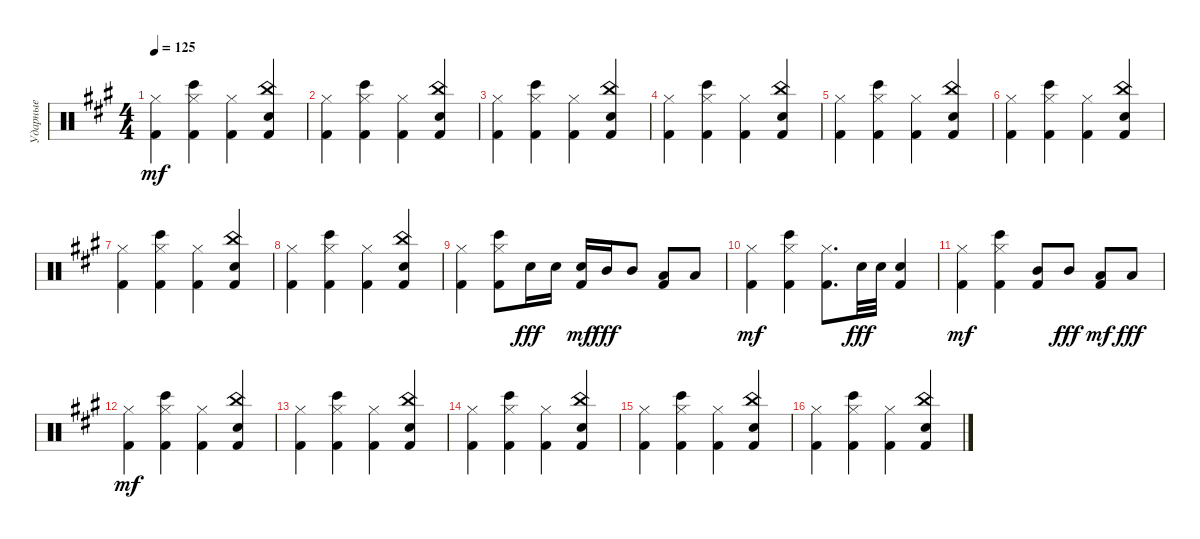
\track ("Ударные" "Ударные") {instrument percussion}
\staff {score}
\articulation defaults
\ts (4 4)
\tempo 125
\clef neutral
\ks f#minor
("Hi-Hat (closed)" "Kick (hit) 2").4{dy mf} ("Hi-Hat (closed)" "Bongo High (hit)" "Kick (hit) 2").4 ("Hi-Hat (closed)" "Kick (hit) 2").4 ("China (hit)" "Electric Snare (hit)" "Kick (hit) 2").4 |
("Hi-Hat (closed)" "Kick (hit) 2").4 ("Hi-Hat (closed)" "Bongo High (hit)" "Kick (hit) 2").4 ("Hi-Hat (closed)" "Kick (hit) 2").4 ("China (hit)" "Electric Snare (hit)" "Kick (hit) 2").4 |
("Hi-Hat (closed)" "Kick (hit) 2").4 ("Hi-Hat (closed)" "Bongo High (hit)" "Kick (hit) 2").4 ("Hi-Hat (closed)" "Kick (hit) 2").4 ("China (hit)" "Electric Snare (hit)" "Kick (hit) 2").4 |
("Hi-Hat (closed)" "Kick (hit) 2").4 ("Hi-Hat (closed)" "Bongo High (hit)" "Kick (hit) 2").4 ("Hi-Hat (closed)" "Kick (hit) 2").4 ("China (hit)" "Electric Snare (hit)" "Kick (hit) 2").4 |
("Hi-Hat (closed)" "Kick (hit) 2").4 ("Hi-Hat (closed)" "Bongo High (hit)" "Kick (hit) 2").4 ("Hi-Hat (closed)" "Kick (hit) 2").4 ("China (hit)" "Electric Snare (hit)" "Kick (hit) 2").4 |
("Hi-Hat (closed)" "Kick (hit) 2").4 ("Hi-Hat (closed)" "Bongo High (hit)" "Kick (hit) 2").4 ("Hi-Hat (closed)" "Kick (hit) 2").4 ("China (hit)" "Electric Snare (hit)" "Kick (hit) 2").4 |
("Hi-Hat (closed)" "Kick (hit) 2").4 ("Hi-Hat (closed)" "Bongo High (hit)" "Kick (hit) 2").4 ("Hi-Hat (closed)" "Kick (hit) 2").4 ("China (hit)" "Electric Snare (hit)" "Kick (hit) 2").4 |
("Hi-Hat (closed)" "Kick (hit) 2").4 ("Hi-Hat (closed)" "Bongo High (hit)" "Kick (hit) 2").4 ("Hi-Hat (closed)" "Kick (hit) 2").4 ("China (hit)" "Electric Snare (hit)" "Kick (hit) 2").4 |
("Hi-Hat (closed)" "Kick (hit) 2").4 ("Hi-Hat (closed)" "Bongo High (hit)" "Kick (hit) 2").8 "Electric Snare (hit)".16{dy fff} "Electric Snare (hit)".16 ("Electric Snare (hit)" "Kick (hit) 2").16{dy mf} "Mid Tom (hit)".16{dy fff} "Mid Tom (hit)".8 ("Low Tom (hit)" "Kick (hit) 2").8 "Low Tom (hit)".8 |
("Hi-Hat (closed)" "Kick (hit) 2").4{dy mf} ("Hi-Hat (closed)" "Bongo High (hit)" "Kick (hit) 2").4 ("Hi-Hat (closed)" "Kick (hit) 2").8{d} "Snare (hit) 2".32{dy fff} "Snare (hit) 2".32 ("Snare (hit) 2" "Kick (hit) 2").4 |
("Hi-Hat (closed)" "Kick (hit) 2").4{dy mf} ("Hi-Hat (closed)" "Bongo High (hit)" "Kick (hit) 2").4 ("Mid Tom (hit)" "Kick (hit) 2").8 "Mid Tom (hit)".8{dy fff} ("Low Tom (hit)" "Kick (hit) 2").8{dy mf} "Low Tom (hit)".8{dy fff} |
("Hi-Hat (closed)" "Kick (hit) 2").4{dy mf} ("Hi-Hat (closed)" "Bongo High (hit)" "Kick (hit) 2").4 ("Hi-Hat (closed)" "Kick (hit) 2").4 ("China (hit)" "Electric Snare (hit)" "Kick (hit) 2").4 |
("Hi-Hat (closed)" "Kick (hit) 2").4 ("Hi-Hat (closed)" "Bongo High (hit)" "Kick (hit) 2").4 ("Hi-Hat (closed)" "Kick (hit) 2").4 ("China (hit)" "Electric Snare (hit)" "Kick (hit) 2").4 |
("Hi-Hat (closed)" "Kick (hit) 2").4 ("Hi-Hat (closed)" "Bongo High (hit)" "Kick (hit) 2").4 ("Hi-Hat (closed)" "Kick (hit) 2").4 ("China (hit)" "Electric Snare (hit)" "Kick (hit) 2").4 |
("Hi-Hat (closed)" "Kick (hit) 2").4 ("Hi-Hat (closed)" "Bongo High (hit)" "Kick (hit) 2").4 ("Hi-Hat (closed)" "Kick (hit) 2").4 ("China (hit)" "Electric Snare (hit)" "Kick (hit) 2").4 |
("Hi-Hat (closed)" "Kick (hit) 2").4 ("Hi-Hat (closed)" "Bongo High (hit)" "Kick (hit) 2").4 ("Hi-Hat (closed)" "Kick (hit) 2").4 ("China (hit)" "Electric Snare (hit)" "Kick (hit) 2").4
